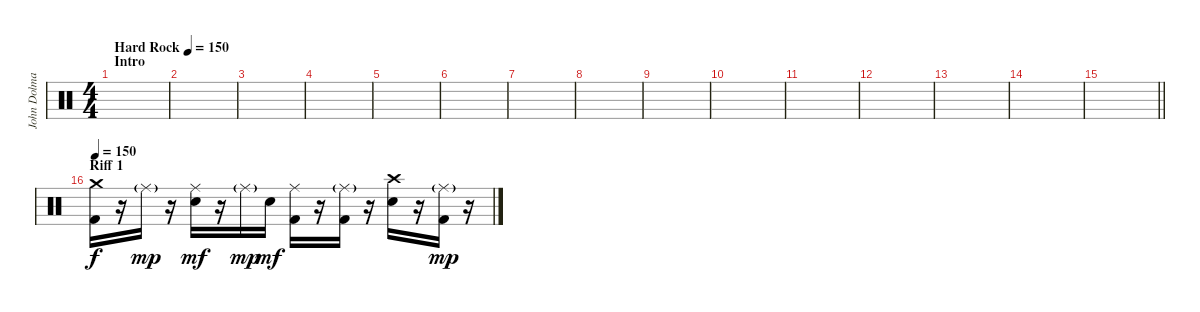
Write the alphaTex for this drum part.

\track ("John Dolmayan" "John Dolma") {instrument percussion}
\staff {score}
\articulation defaults
\ts (4 4)
\section ("" "Intro")
\tempo (150 "Hard Rock")
\tempo 142
\tempo (150 "Hard Rock")
\clef neutral
\ks c
|
|
|
|
|
|
|
|
|
|
|
|
|
|
\barLineRight lightlight
|
\section ("" "Riff 1")
\tempo 150
("Crash medium (hit)" "Kick (hit) 2").16 r.16 "Ride (middle)"{g}.16{dy mp} r.16 ("Ride (middle)" "Electric Snare (hit)").16{dy mf} r.16 "Ride (middle)"{g}.16{dy mp} "Electric Snare (hit)".16{dy mf} ("Ride (middle)" "Kick (hit) 2").16 r.16 ("Ride (middle)"{g} "Kick (hit) 2").16 r.16 ("Crash high (hit)" "Electric Snare (hit)").16 r.16 ("Ride (middle)"{g} "Kick (hit) 2").16{dy mp} r.16
